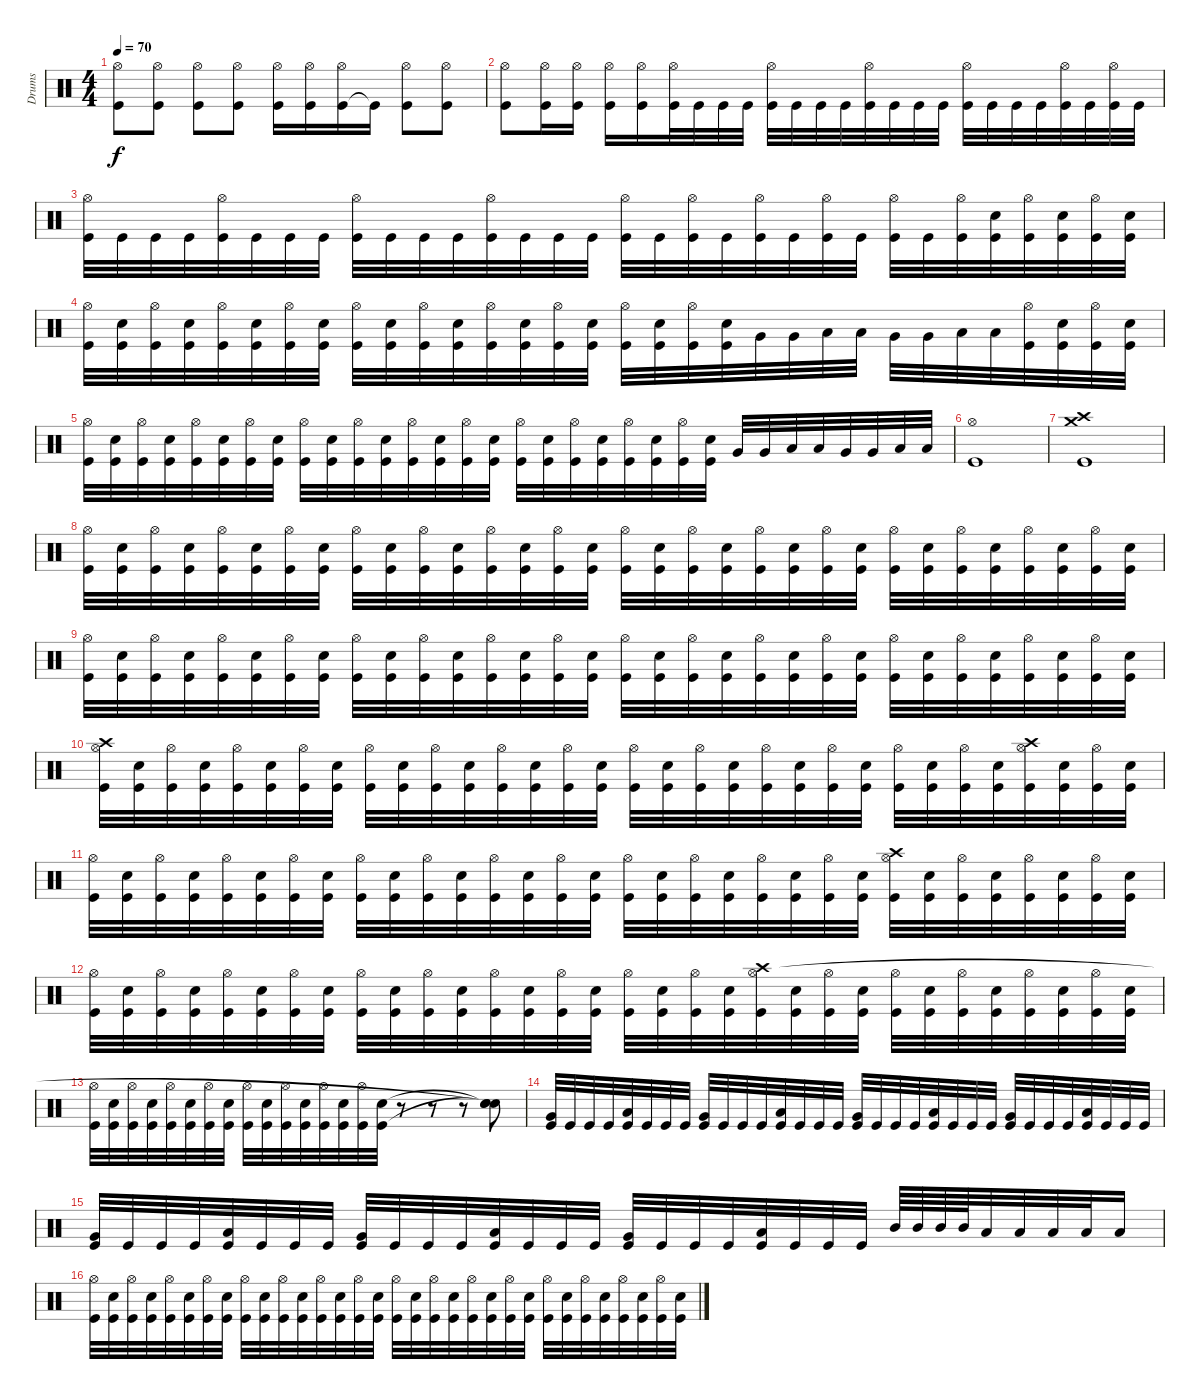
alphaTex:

\track ("Drums" "Drums") {instrument percussion}
\staff {score}
\articulation defaults
\ts (4 4)
\tempo 70
\clef neutral
\ks c
("Kick (hit)" "Hi-Hat (open)").8{dy f} ("Kick (hit)" "Hi-Hat (open)").8 ("Kick (hit)" "Hi-Hat (open)").8 ("Kick (hit)" "Hi-Hat (open)").8 ("Kick (hit)" "Hi-Hat (open)").16 ("Kick (hit)" "Hi-Hat (open)").16 ("Kick (hit)" "Hi-Hat (open)").16 "Kick (hit)"{t}.16 ("Kick (hit)" "Hi-Hat (open)").8 ("Kick (hit)" "Hi-Hat (open)").8 |
("Kick (hit)" "Hi-Hat (open)").8 ("Kick (hit)" "Hi-Hat (open)").16 ("Kick (hit)" "Hi-Hat (open)").16 ("Kick (hit)" "Hi-Hat (open)").16 ("Kick (hit)" "Hi-Hat (open)").16 ("Kick (hit)" "Hi-Hat (open)").32 "Kick (hit)".32 "Kick (hit)".32 "Kick (hit)".32 ("Kick (hit)" "Hi-Hat (open)").32 "Kick (hit)".32 "Kick (hit)".32 "Kick (hit)".32 ("Kick (hit)" "Hi-Hat (open)").32 "Kick (hit)".32 "Kick (hit)".32 "Kick (hit)".32 ("Kick (hit)" "Hi-Hat (open)").32 "Kick (hit)".32 "Kick (hit)".32 "Kick (hit)".32 ("Kick (hit)" "Hi-Hat (open)").32 "Kick (hit)".32 ("Kick (hit)" "Hi-Hat (open)").32 "Kick (hit)".32 |
("Kick (hit)" "Hi-Hat (open)").32 "Kick (hit)".32 "Kick (hit)".32 "Kick (hit)".32 ("Kick (hit)" "Hi-Hat (open)").32 "Kick (hit)".32 "Kick (hit)".32 "Kick (hit)".32 ("Kick (hit)" "Hi-Hat (open)").32 "Kick (hit)".32 "Kick (hit)".32 "Kick (hit)".32 ("Kick (hit)" "Hi-Hat (open)").32 "Kick (hit)".32 "Kick (hit)".32 "Kick (hit)".32 ("Kick (hit)" "Hi-Hat (open)").32 "Kick (hit)".32 ("Kick (hit)" "Hi-Hat (open)").32 "Kick (hit)".32 ("Kick (hit)" "Hi-Hat (open)").32 "Kick (hit)".32 ("Kick (hit)" "Hi-Hat (open)").32 "Kick (hit)".32 ("Kick (hit)" "Hi-Hat (open)").32 "Kick (hit)".32 ("Kick (hit)" "Hi-Hat (open)").32 ("Kick (hit)" "Electric Snare (hit)").32 ("Kick (hit)" "Hi-Hat (open)").32 ("Kick (hit)" "Electric Snare (hit)").32 ("Kick (hit)" "Hi-Hat (open)").32 ("Kick (hit)" "Electric Snare (hit)").32 |
("Kick (hit)" "Hi-Hat (open)").32 ("Kick (hit)" "Electric Snare (hit)").32 ("Kick (hit)" "Hi-Hat (open)").32 ("Kick (hit)" "Electric Snare (hit)").32 ("Kick (hit)" "Hi-Hat (open)").32 ("Kick (hit)" "Electric Snare (hit)").32 ("Kick (hit)" "Hi-Hat (open)").32 ("Kick (hit)" "Electric Snare (hit)").32 ("Kick (hit)" "Hi-Hat (open)").32 ("Kick (hit)" "Electric Snare (hit)").32 ("Kick (hit)" "Hi-Hat (open)").32 ("Kick (hit)" "Electric Snare (hit)").32 ("Kick (hit)" "Hi-Hat (open)").32 ("Kick (hit)" "Electric Snare (hit)").32 ("Kick (hit)" "Hi-Hat (open)").32 ("Kick (hit)" "Electric Snare (hit)").32 ("Kick (hit)" "Hi-Hat (open)").32 ("Kick (hit)" "Electric Snare (hit)").32 ("Kick (hit)" "Hi-Hat (open)").32 ("Kick (hit)" "Electric Snare (hit)").32 "Very Low Tom (hit)".32 "Very Low Tom (hit)".32 "Low Floor Tom (hit)".32 "Low Floor Tom (hit)".32 "Very Low Tom (hit)".32 "Very Low Tom (hit)".32 "Low Floor Tom (hit)".32 "Low Floor Tom (hit)".32 ("Kick (hit)" "Hi-Hat (open)").32 ("Kick (hit)" "Electric Snare (hit)").32 ("Kick (hit)" "Hi-Hat (open)").32 ("Kick (hit)" "Electric Snare (hit)").32 |
("Kick (hit)" "Hi-Hat (open)").32 ("Kick (hit)" "Electric Snare (hit)").32 ("Kick (hit)" "Hi-Hat (open)").32 ("Kick (hit)" "Electric Snare (hit)").32 ("Kick (hit)" "Hi-Hat (open)").32 ("Kick (hit)" "Electric Snare (hit)").32 ("Kick (hit)" "Hi-Hat (open)").32 ("Kick (hit)" "Electric Snare (hit)").32 ("Kick (hit)" "Hi-Hat (open)").32 ("Kick (hit)" "Electric Snare (hit)").32 ("Kick (hit)" "Hi-Hat (open)").32 ("Kick (hit)" "Electric Snare (hit)").32 ("Kick (hit)" "Hi-Hat (open)").32 ("Kick (hit)" "Electric Snare (hit)").32 ("Kick (hit)" "Hi-Hat (open)").32 ("Kick (hit)" "Electric Snare (hit)").32 ("Kick (hit)" "Hi-Hat (open)").32 ("Kick (hit)" "Electric Snare (hit)").32 ("Kick (hit)" "Hi-Hat (open)").32 ("Kick (hit)" "Electric Snare (hit)").32 ("Kick (hit)" "Hi-Hat (open)").32 ("Kick (hit)" "Electric Snare (hit)").32 ("Kick (hit)" "Hi-Hat (open)").32 ("Kick (hit)" "Electric Snare (hit)").32 "Very Low Tom (hit)".32 "Very Low Tom (hit)".32 "Low Floor Tom (hit)".32 "Low Floor Tom (hit)".32 "Very Low Tom (hit)".32 "Very Low Tom (hit)".32 "Low Floor Tom (hit)".32 "Low Floor Tom (hit)".32 |
("Kick (hit)" "Hi-Hat (open)").1 |
("Crash medium (hit)" "Crash high (hit)" "Kick (hit)").1 |
("Kick (hit)" "Hi-Hat (open)").32 ("Kick (hit)" "Electric Snare (hit)").32 ("Kick (hit)" "Hi-Hat (open)").32 ("Kick (hit)" "Electric Snare (hit)").32 ("Kick (hit)" "Hi-Hat (open)").32 ("Kick (hit)" "Electric Snare (hit)").32 ("Kick (hit)" "Hi-Hat (open)").32 ("Kick (hit)" "Electric Snare (hit)").32 ("Kick (hit)" "Hi-Hat (open)").32 ("Kick (hit)" "Electric Snare (hit)").32 ("Kick (hit)" "Hi-Hat (open)").32 ("Kick (hit)" "Electric Snare (hit)").32 ("Kick (hit)" "Hi-Hat (open)").32 ("Kick (hit)" "Electric Snare (hit)").32 ("Kick (hit)" "Hi-Hat (open)").32 ("Kick (hit)" "Electric Snare (hit)").32 ("Kick (hit)" "Hi-Hat (open)").32 ("Kick (hit)" "Electric Snare (hit)").32 ("Kick (hit)" "Hi-Hat (open)").32 ("Kick (hit)" "Electric Snare (hit)").32 ("Kick (hit)" "Hi-Hat (open)").32 ("Kick (hit)" "Electric Snare (hit)").32 ("Kick (hit)" "Hi-Hat (open)").32 ("Kick (hit)" "Electric Snare (hit)").32 ("Kick (hit)" "Hi-Hat (open)").32 ("Kick (hit)" "Electric Snare (hit)").32 ("Kick (hit)" "Hi-Hat (open)").32 ("Kick (hit)" "Electric Snare (hit)").32 ("Kick (hit)" "Hi-Hat (open)").32 ("Kick (hit)" "Electric Snare (hit)").32 ("Kick (hit)" "Hi-Hat (open)").32 ("Kick (hit)" "Electric Snare (hit)").32 |
("Kick (hit)" "Hi-Hat (open)").32 ("Kick (hit)" "Electric Snare (hit)").32 ("Kick (hit)" "Hi-Hat (open)").32 ("Kick (hit)" "Electric Snare (hit)").32 ("Kick (hit)" "Hi-Hat (open)").32 ("Kick (hit)" "Electric Snare (hit)").32 ("Kick (hit)" "Hi-Hat (open)").32 ("Kick (hit)" "Electric Snare (hit)").32 ("Kick (hit)" "Hi-Hat (open)").32 ("Kick (hit)" "Electric Snare (hit)").32 ("Kick (hit)" "Hi-Hat (open)").32 ("Kick (hit)" "Electric Snare (hit)").32 ("Kick (hit)" "Hi-Hat (open)").32 ("Kick (hit)" "Electric Snare (hit)").32 ("Kick (hit)" "Hi-Hat (open)").32 ("Kick (hit)" "Electric Snare (hit)").32 ("Kick (hit)" "Hi-Hat (open)").32 ("Kick (hit)" "Electric Snare (hit)").32 ("Kick (hit)" "Hi-Hat (open)").32 ("Kick (hit)" "Electric Snare (hit)").32 ("Kick (hit)" "Hi-Hat (open)").32 ("Kick (hit)" "Electric Snare (hit)").32 ("Kick (hit)" "Hi-Hat (open)").32 ("Kick (hit)" "Electric Snare (hit)").32 ("Kick (hit)" "Hi-Hat (open)").32 ("Kick (hit)" "Electric Snare (hit)").32 ("Kick (hit)" "Hi-Hat (open)").32 ("Kick (hit)" "Electric Snare (hit)").32 ("Kick (hit)" "Hi-Hat (open)").32 ("Kick (hit)" "Electric Snare (hit)").32 ("Kick (hit)" "Hi-Hat (open)").32 ("Kick (hit)" "Electric Snare (hit)").32 |
("Kick (hit)" "Crash high (hit)" "Hi-Hat (open)").32 ("Kick (hit)" "Electric Snare (hit)").32 ("Kick (hit)" "Hi-Hat (open)").32 ("Kick (hit)" "Electric Snare (hit)").32 ("Kick (hit)" "Hi-Hat (open)").32 ("Kick (hit)" "Electric Snare (hit)").32 ("Kick (hit)" "Hi-Hat (open)").32 ("Kick (hit)" "Electric Snare (hit)").32 ("Kick (hit)" "Hi-Hat (open)").32 ("Kick (hit)" "Electric Snare (hit)").32 ("Kick (hit)" "Hi-Hat (open)").32 ("Kick (hit)" "Electric Snare (hit)").32 ("Kick (hit)" "Hi-Hat (open)").32 ("Kick (hit)" "Electric Snare (hit)").32 ("Kick (hit)" "Hi-Hat (open)").32 ("Kick (hit)" "Electric Snare (hit)").32 ("Kick (hit)" "Hi-Hat (open)").32 ("Kick (hit)" "Electric Snare (hit)").32 ("Kick (hit)" "Hi-Hat (open)").32 ("Kick (hit)" "Electric Snare (hit)").32 ("Kick (hit)" "Hi-Hat (open)").32 ("Kick (hit)" "Electric Snare (hit)").32 ("Kick (hit)" "Hi-Hat (open)").32 ("Kick (hit)" "Electric Snare (hit)").32 ("Kick (hit)" "Hi-Hat (open)").32 ("Kick (hit)" "Electric Snare (hit)").32 ("Kick (hit)" "Hi-Hat (open)").32 ("Kick (hit)" "Electric Snare (hit)").32 ("Kick (hit)" "Crash high (hit)" "Hi-Hat (open)").32 ("Kick (hit)" "Electric Snare (hit)").32 ("Kick (hit)" "Hi-Hat (open)").32 ("Kick (hit)" "Electric Snare (hit)").32 |
("Kick (hit)" "Hi-Hat (open)").32 ("Kick (hit)" "Electric Snare (hit)").32 ("Kick (hit)" "Hi-Hat (open)").32 ("Kick (hit)" "Electric Snare (hit)").32 ("Kick (hit)" "Hi-Hat (open)").32 ("Kick (hit)" "Electric Snare (hit)").32 ("Kick (hit)" "Hi-Hat (open)").32 ("Kick (hit)" "Electric Snare (hit)").32 ("Kick (hit)" "Hi-Hat (open)").32 ("Kick (hit)" "Electric Snare (hit)").32 ("Kick (hit)" "Hi-Hat (open)").32 ("Kick (hit)" "Electric Snare (hit)").32 ("Kick (hit)" "Hi-Hat (open)").32 ("Kick (hit)" "Electric Snare (hit)").32 ("Kick (hit)" "Hi-Hat (open)").32 ("Kick (hit)" "Electric Snare (hit)").32 ("Kick (hit)" "Hi-Hat (open)").32 ("Kick (hit)" "Electric Snare (hit)").32 ("Kick (hit)" "Hi-Hat (open)").32 ("Kick (hit)" "Electric Snare (hit)").32 ("Kick (hit)" "Hi-Hat (open)").32 ("Kick (hit)" "Electric Snare (hit)").32 ("Kick (hit)" "Hi-Hat (open)").32 ("Kick (hit)" "Electric Snare (hit)").32 ("Kick (hit)" "Crash high (hit)" "Hi-Hat (open)").32 ("Kick (hit)" "Electric Snare (hit)").32 ("Kick (hit)" "Hi-Hat (open)").32 ("Kick (hit)" "Electric Snare (hit)").32 ("Kick (hit)" "Hi-Hat (open)").32 ("Kick (hit)" "Electric Snare (hit)").32 ("Kick (hit)" "Hi-Hat (open)").32 ("Kick (hit)" "Electric Snare (hit)").32 |
("Kick (hit)" "Hi-Hat (open)").32 ("Kick (hit)" "Electric Snare (hit)").32 ("Kick (hit)" "Hi-Hat (open)").32 ("Kick (hit)" "Electric Snare (hit)").32 ("Kick (hit)" "Hi-Hat (open)").32 ("Kick (hit)" "Electric Snare (hit)").32 ("Kick (hit)" "Hi-Hat (open)").32 ("Kick (hit)" "Electric Snare (hit)").32 ("Kick (hit)" "Hi-Hat (open)").32 ("Kick (hit)" "Electric Snare (hit)").32 ("Kick (hit)" "Hi-Hat (open)").32 ("Kick (hit)" "Electric Snare (hit)").32 ("Kick (hit)" "Hi-Hat (open)").32 ("Kick (hit)" "Electric Snare (hit)").32 ("Kick (hit)" "Hi-Hat (open)").32 ("Kick (hit)" "Electric Snare (hit)").32 ("Kick (hit)" "Hi-Hat (open)").32 ("Kick (hit)" "Electric Snare (hit)").32 ("Kick (hit)" "Hi-Hat (open)").32 ("Kick (hit)" "Electric Snare (hit)").32 ("Kick (hit)" "Crash high (hit)" "Hi-Hat (open)").32 ("Kick (hit)" "Electric Snare (hit)").32 ("Kick (hit)" "Hi-Hat (open)").32 ("Kick (hit)" "Electric Snare (hit)").32 ("Kick (hit)" "Hi-Hat (open)").32 ("Kick (hit)" "Electric Snare (hit)").32 ("Kick (hit)" "Hi-Hat (open)").32 ("Kick (hit)" "Electric Snare (hit)").32 ("Kick (hit)" "Hi-Hat (open)").32 ("Kick (hit)" "Electric Snare (hit)").32 ("Kick (hit)" "Hi-Hat (open)").32 ("Kick (hit)" "Electric Snare (hit)").32 |
("Kick (hit)" "Hi-Hat (open)").32 ("Kick (hit)" "Electric Snare (hit)").32 ("Kick (hit)" "Hi-Hat (open)").32 ("Kick (hit)" "Electric Snare (hit)").32 ("Kick (hit)" "Hi-Hat (open)").32 ("Kick (hit)" "Electric Snare (hit)").32 ("Kick (hit)" "Hi-Hat (open)").32 ("Kick (hit)" "Electric Snare (hit)").32 ("Kick (hit)" "Hi-Hat (open)").32 ("Kick (hit)" "Electric Snare (hit)").32 ("Kick (hit)" "Hi-Hat (open)").32 ("Kick (hit)" "Electric Snare (hit)").32 ("Kick (hit)" "Hi-Hat (open)").32 ("Kick (hit)" "Electric Snare (hit)").32 ("Kick (hit)" "Hi-Hat (open)").32 ("Kick (hit)" "Electric Snare (hit)").32 r.8 r.8 r.8 ("Snare (hit)"{t} "Snare (hit)"{t} "Snare (hit)"{t}).8 |
("Kick (hit)" "Very Low Tom (hit)").32 "Kick (hit)".32 "Kick (hit)".32 "Kick (hit)".32 ("Kick (hit)" "Low Floor Tom (hit)").32 "Kick (hit)".32 "Kick (hit)".32 "Kick (hit)".32 ("Kick (hit)" "Very Low Tom (hit)").32 "Kick (hit)".32 "Kick (hit)".32 "Kick (hit)".32 ("Kick (hit)" "Low Floor Tom (hit)").32 "Kick (hit)".32 "Kick (hit)".32 "Kick (hit)".32 ("Kick (hit)" "Very Low Tom (hit)").32 "Kick (hit)".32 "Kick (hit)".32 "Kick (hit)".32 ("Kick (hit)" "Low Floor Tom (hit)").32 "Kick (hit)".32 "Kick (hit)".32 "Kick (hit)".32 ("Kick (hit)" "Very Low Tom (hit)").32 "Kick (hit)".32 "Kick (hit)".32 "Kick (hit)".32 ("Kick (hit)" "Low Floor Tom (hit)").32 "Kick (hit)".32 "Kick (hit)".32 "Kick (hit)".32 |
("Kick (hit)" "Very Low Tom (hit)").32 "Kick (hit)".32 "Kick (hit)".32 "Kick (hit)".32 ("Kick (hit)" "Low Floor Tom (hit)").32 "Kick (hit)".32 "Kick (hit)".32 "Kick (hit)".32 ("Kick (hit)" "Very Low Tom (hit)").32 "Kick (hit)".32 "Kick (hit)".32 "Kick (hit)".32 ("Kick (hit)" "Low Floor Tom (hit)").32 "Kick (hit)".32 "Kick (hit)".32 "Kick (hit)".32 ("Kick (hit)" "Very Low Tom (hit)").32 "Kick (hit)".32 "Kick (hit)".32 "Kick (hit)".32 ("Kick (hit)" "Low Floor Tom (hit)").32 "Kick (hit)".32 "Kick (hit)".32 "Kick (hit)".32 "Mid Tom (hit)".64 "Mid Tom (hit)".64 "Mid Tom (hit)".64 "Mid Tom (hit)".64 "Low Tom (hit)".32 "Low Tom (hit)".32 "Low Tom (hit)".32 "Low Tom (hit)".32 "Low Floor Tom (hit)".16 |
("Kick (hit)" "Hi-Hat (open)").32 ("Kick (hit)" "Electric Snare (hit)").32 ("Kick (hit)" "Hi-Hat (open)").32 ("Kick (hit)" "Electric Snare (hit)").32 ("Kick (hit)" "Hi-Hat (open)").32 ("Kick (hit)" "Electric Snare (hit)").32 ("Kick (hit)" "Hi-Hat (open)").32 ("Kick (hit)" "Electric Snare (hit)").32 ("Kick (hit)" "Hi-Hat (open)").32 ("Kick (hit)" "Electric Snare (hit)").32 ("Kick (hit)" "Hi-Hat (open)").32 ("Kick (hit)" "Electric Snare (hit)").32 ("Kick (hit)" "Hi-Hat (open)").32 ("Kick (hit)" "Electric Snare (hit)").32 ("Kick (hit)" "Hi-Hat (open)").32 ("Kick (hit)" "Electric Snare (hit)").32 ("Kick (hit)" "Hi-Hat (open)").32 ("Kick (hit)" "Electric Snare (hit)").32 ("Kick (hit)" "Hi-Hat (open)").32 ("Kick (hit)" "Electric Snare (hit)").32 ("Kick (hit)" "Hi-Hat (open)").32 ("Kick (hit)" "Electric Snare (hit)").32 ("Kick (hit)" "Hi-Hat (open)").32 ("Kick (hit)" "Electric Snare (hit)").32 ("Kick (hit)" "Hi-Hat (open)").32 ("Kick (hit)" "Electric Snare (hit)").32 ("Kick (hit)" "Hi-Hat (open)").32 ("Kick (hit)" "Electric Snare (hit)").32 ("Kick (hit)" "Hi-Hat (open)").32 ("Kick (hit)" "Electric Snare (hit)").32 ("Kick (hit)" "Hi-Hat (open)").32 ("Kick (hit)" "Electric Snare (hit)").32
